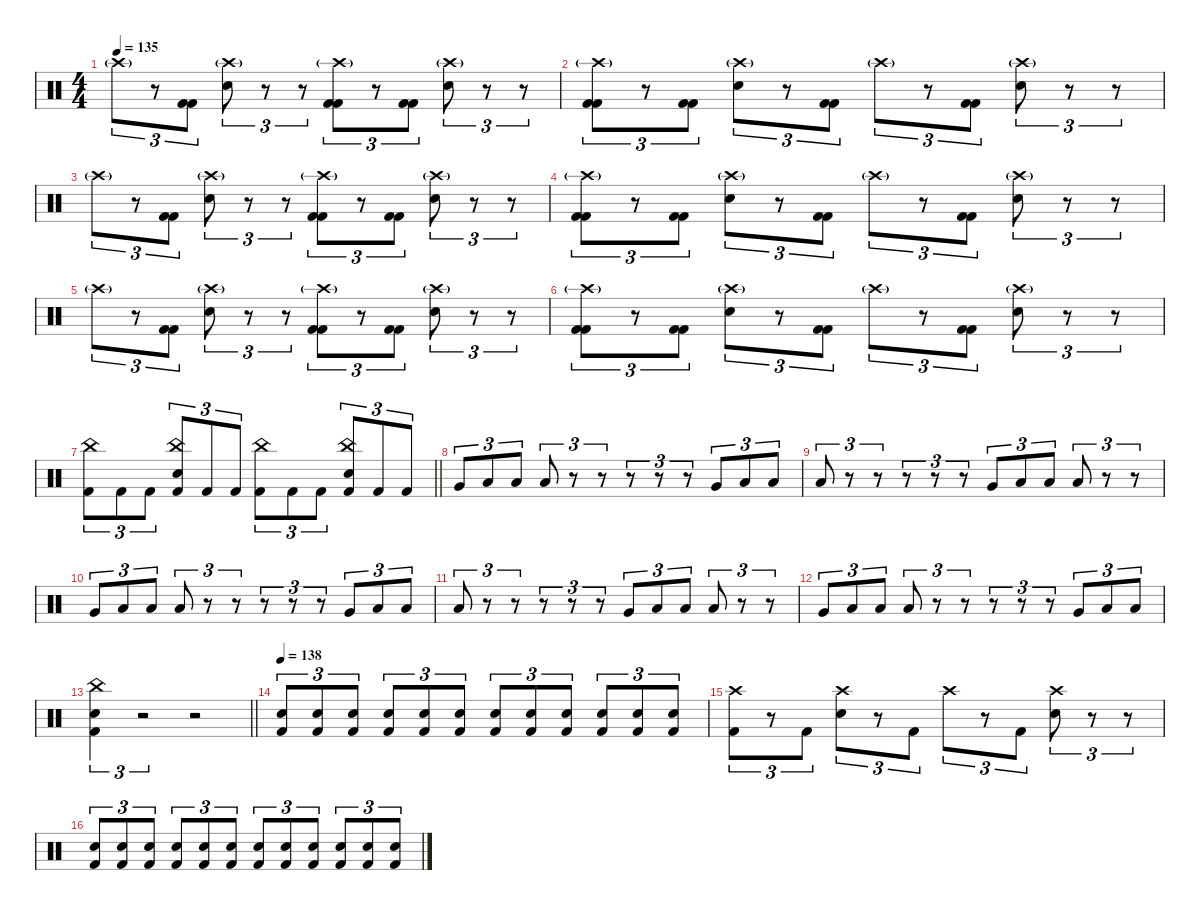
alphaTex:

\defaultSystemsLayout 4
\hideDynamics
\bracketExtendMode nobrackets
\singleTrackTrackNamePolicy hidden
\multiTrackTrackNamePolicy hidden
\otherSystemsTrackNameOrientation horizontal
\track ("Gene Hoglan" "drm.") {instrument percussion}
\staff {score}
\articulation defaults
\ts (4 4)
\tempo 135
\clef neutral
\ks c "Crash high (hit)"{g}.8{tu (3 2) dy mf beam Down}
r.8{tu (3 2) beam Down} ("Kick (hit) 2" "Kick (hit) 2").8{tu (3 2) dy f beam Down} ("Crash high (hit)"{g} "Snare (hit) 2").8{tu (3 2) beam Down} r.8{tu (3 2) beam Down} r.8{tu (3 2) beam Down} ("Crash high (hit)"{g} "Kick (hit) 2" "Kick (hit) 2").8{tu (3 2) beam Down} r.8{tu (3 2) beam Down} ("Kick (hit) 2" "Kick (hit) 2").8{tu (3 2) beam Down} ("Crash high (hit)"{g} "Snare (hit) 2").8{tu (3 2) beam Down} r.8{tu (3 2) beam Down} r.8{tu (3 2) beam Down} |
("Crash high (hit)"{g} "Kick (hit) 2" "Kick (hit) 2").8{tu (3 2) beam Down} r.8{tu (3 2) beam Down} ("Kick (hit) 2" "Kick (hit) 2").8{tu (3 2) beam Down} ("Crash high (hit)"{g} "Snare (hit) 2").8{tu (3 2) beam Down} r.8{tu (3 2) beam Down} ("Kick (hit) 2" "Kick (hit) 2").8{tu (3 2) beam Down} "Crash high (hit)"{g}.8{tu (3 2) dy mf beam Down} r.8{tu (3 2) beam Down} ("Kick (hit) 2" "Kick (hit) 2").8{tu (3 2) dy f beam Down} ("Crash high (hit)"{g} "Snare (hit) 2").8{tu (3 2) beam Down} r.8{tu (3 2) beam Down} r.8{tu (3 2) beam Down} |
"Crash high (hit)"{g}.8{tu (3 2) dy mf beam Down} r.8{tu (3 2) beam Down} ("Kick (hit) 2" "Kick (hit) 2").8{tu (3 2) dy f beam Down} ("Crash high (hit)"{g} "Snare (hit) 2").8{tu (3 2) beam Down} r.8{tu (3 2) beam Down} r.8{tu (3 2) beam Down} ("Crash high (hit)"{g} "Kick (hit) 2" "Kick (hit) 2").8{tu (3 2) beam Down} r.8{tu (3 2) beam Down} ("Kick (hit) 2" "Kick (hit) 2").8{tu (3 2) beam Down} ("Crash high (hit)"{g} "Snare (hit) 2").8{tu (3 2) beam Down} r.8{tu (3 2) beam Down} r.8{tu (3 2) beam Down} |
("Crash high (hit)"{g} "Kick (hit) 2" "Kick (hit) 2").8{tu (3 2) beam Down} r.8{tu (3 2) beam Down} ("Kick (hit) 2" "Kick (hit) 2").8{tu (3 2) beam Down} ("Crash high (hit)"{g} "Snare (hit) 2").8{tu (3 2) beam Down} r.8{tu (3 2) beam Down} ("Kick (hit) 2" "Kick (hit) 2").8{tu (3 2) beam Down} "Crash high (hit)"{g}.8{tu (3 2) dy mf beam Down} r.8{tu (3 2) beam Down} ("Kick (hit) 2" "Kick (hit) 2").8{tu (3 2) dy f beam Down} ("Crash high (hit)"{g} "Snare (hit) 2").8{tu (3 2) beam Down} r.8{tu (3 2) beam Down} r.8{tu (3 2) beam Down} |
"Crash high (hit)"{g}.8{tu (3 2) dy mf beam Down} r.8{tu (3 2) beam Down} ("Kick (hit) 2" "Kick (hit) 2").8{tu (3 2) dy f beam Down} ("Crash high (hit)"{g} "Snare (hit) 2").8{tu (3 2) beam Down} r.8{tu (3 2) beam Down} r.8{tu (3 2) beam Down} ("Crash high (hit)"{g} "Kick (hit) 2" "Kick (hit) 2").8{tu (3 2) beam Down} r.8{tu (3 2) beam Down} ("Kick (hit) 2" "Kick (hit) 2").8{tu (3 2) beam Down} ("Crash high (hit)"{g} "Snare (hit) 2").8{tu (3 2) beam Down} r.8{tu (3 2) beam Down} r.8{tu (3 2) beam Down} |
("Crash high (hit)"{g} "Kick (hit) 2" "Kick (hit) 2").8{tu (3 2) beam Down} r.8{tu (3 2) beam Down} ("Kick (hit) 2" "Kick (hit) 2").8{tu (3 2) beam Down} ("Crash high (hit)"{g} "Snare (hit) 2").8{tu (3 2) beam Down} r.8{tu (3 2) beam Down} ("Kick (hit) 2" "Kick (hit) 2").8{tu (3 2) beam Down} "Crash high (hit)"{g}.8{tu (3 2) dy mf beam Down} r.8{tu (3 2) beam Down} ("Kick (hit) 2" "Kick (hit) 2").8{tu (3 2) dy f beam Down} ("Crash high (hit)"{g} "Snare (hit) 2").8{tu (3 2) beam Down} r.8{tu (3 2) beam Down} r.8{tu (3 2) beam Down} |
\barLineRight lightlight
("China (hit)" "Kick (hit) 2").8{tu (3 2) dy mf beam Down} "Kick (hit) 2".8{tu (3 2) dy f beam Down} "Kick (hit) 2".8{tu (3 2) beam Down} ("China (hit)" "Snare (hit) 2" "Kick (hit) 2").8{tu (3 2) dy mf beam Up} "Kick (hit) 2".8{tu (3 2) dy f beam Up} "Kick (hit) 2".8{tu (3 2) beam Up} ("China (hit)" "Kick (hit) 2").8{tu (3 2) dy mf beam Down} "Kick (hit) 2".8{tu (3 2) dy f beam Down} "Kick (hit) 2".8{tu (3 2) beam Down} ("China (hit)" "Snare (hit) 2" "Kick (hit) 2").8{tu (3 2) dy mf beam Up} "Kick (hit) 2".8{tu (3 2) dy f beam Up} "Kick (hit) 2".8{tu (3 2) beam Up} |
"Very Low Tom (hit)".8{tu (3 2) beam Up} "Low Floor Tom (hit)".8{tu (3 2) beam Up} "Low Floor Tom (hit)".8{tu (3 2) beam Up} "Low Floor Tom (hit)".8{tu (3 2) beam Up} r.8{tu (3 2) beam Up} r.8{tu (3 2) beam Up} r.8{tu (3 2) beam Up} r.8{tu (3 2) beam Up} r.8{tu (3 2) beam Up} "Very Low Tom (hit)".8{tu (3 2) beam Up} "Low Floor Tom (hit)".8{tu (3 2) beam Up} "Low Floor Tom (hit)".8{tu (3 2) beam Up} |
"Low Floor Tom (hit)".8{tu (3 2) beam Up} r.8{tu (3 2) beam Up} r.8{tu (3 2) beam Up} r.8{tu (3 2) beam Up} r.8{tu (3 2) beam Up} r.8{tu (3 2) beam Up} "Very Low Tom (hit)".8{tu (3 2) beam Up} "Low Floor Tom (hit)".8{tu (3 2) beam Up} "Low Floor Tom (hit)".8{tu (3 2) beam Up} "Low Floor Tom (hit)".8{tu (3 2) beam Up} r.8{tu (3 2) beam Up} r.8{tu (3 2) beam Up} |
"Very Low Tom (hit)".8{tu (3 2) beam Up} "Low Floor Tom (hit)".8{tu (3 2) beam Up} "Low Floor Tom (hit)".8{tu (3 2) beam Up} "Low Floor Tom (hit)".8{tu (3 2) beam Up} r.8{tu (3 2) beam Up} r.8{tu (3 2) beam Up} r.8{tu (3 2) beam Up} r.8{tu (3 2) beam Up} r.8{tu (3 2) beam Up} "Very Low Tom (hit)".8{tu (3 2) beam Up} "Low Floor Tom (hit)".8{tu (3 2) beam Up} "Low Floor Tom (hit)".8{tu (3 2) beam Up} |
"Low Floor Tom (hit)".8{tu (3 2) beam Up} r.8{tu (3 2) beam Up} r.8{tu (3 2) beam Up} r.8{tu (3 2) beam Up} r.8{tu (3 2) beam Up} r.8{tu (3 2) beam Up} "Very Low Tom (hit)".8{tu (3 2) beam Up} "Low Floor Tom (hit)".8{tu (3 2) beam Up} "Low Floor Tom (hit)".8{tu (3 2) beam Up} "Low Floor Tom (hit)".8{tu (3 2) beam Up} r.8{tu (3 2) beam Up} r.8{tu (3 2) beam Up} |
"Very Low Tom (hit)".8{tu (3 2) beam Up} "Low Floor Tom (hit)".8{tu (3 2) beam Up} "Low Floor Tom (hit)".8{tu (3 2) beam Up} "Low Floor Tom (hit)".8{tu (3 2) beam Up} r.8{tu (3 2) beam Up} r.8{tu (3 2) beam Up} r.8{tu (3 2) beam Up} r.8{tu (3 2) beam Up} r.8{tu (3 2) beam Up} "Very Low Tom (hit)".8{tu (3 2) beam Up} "Low Floor Tom (hit)".8{tu (3 2) beam Up} "Low Floor Tom (hit)".8{tu (3 2) beam Up} |
\barLineRight lightlight
("China (hit)" "Snare (hit) 2" "Kick (hit) 2").4{tu (3 2) beam Down} r.2{tu (3 2) beam Down} r.2{beam Down} |
\tempo 138
("Snare (hit) 2" "Kick (hit) 2").8{tu (3 2) dy fff beam Up} ("Snare (hit) 2" "Kick (hit) 2").8{tu (3 2) beam Up} ("Snare (hit) 2" "Kick (hit) 2").8{tu (3 2) beam Up} ("Snare (hit) 2" "Kick (hit) 2").8{tu (3 2) beam Up} ("Snare (hit) 2" "Kick (hit) 2").8{tu (3 2) beam Up} ("Snare (hit) 2" "Kick (hit) 2").8{tu (3 2) beam Up} ("Snare (hit) 2" "Kick (hit) 2").8{tu (3 2) beam Up} ("Snare (hit) 2" "Kick (hit) 2").8{tu (3 2) beam Up} ("Snare (hit) 2" "Kick (hit) 2").8{tu (3 2) beam Up} ("Snare (hit) 2" "Kick (hit) 2").8{tu (3 2) beam Up} ("Snare (hit) 2" "Kick (hit) 2").8{tu (3 2) beam Up} ("Snare (hit) 2" "Kick (hit) 2").8{tu (3 2) beam Up} |
("Crash high (hit)" "Kick (hit) 2").8{tu (3 2) dy f beam Down} r.8{tu (3 2) beam Down} "Kick (hit) 2".8{tu (3 2) beam Down} ("Crash high (hit)" "Snare (hit) 2").8{tu (3 2) beam Down} r.8{tu (3 2) beam Down} "Kick (hit) 2".8{tu (3 2) beam Down} "Crash high (hit)".8{tu (3 2) beam Down} r.8{tu (3 2) beam Down} "Kick (hit) 2".8{tu (3 2) beam Down} ("Crash high (hit)" "Snare (hit) 2").8{tu (3 2) beam Down} r.8{tu (3 2) beam Down} r.8{tu (3 2) beam Down} |
("Snare (hit) 2" "Kick (hit) 2").8{tu (3 2) dy fff beam Up} ("Snare (hit) 2" "Kick (hit) 2").8{tu (3 2) beam Up} ("Snare (hit) 2" "Kick (hit) 2").8{tu (3 2) beam Up} ("Snare (hit) 2" "Kick (hit) 2").8{tu (3 2) beam Up} ("Snare (hit) 2" "Kick (hit) 2").8{tu (3 2) beam Up} ("Snare (hit) 2" "Kick (hit) 2").8{tu (3 2) beam Up} ("Snare (hit) 2" "Kick (hit) 2").8{tu (3 2) beam Up} ("Snare (hit) 2" "Kick (hit) 2").8{tu (3 2) beam Up} ("Snare (hit) 2" "Kick (hit) 2").8{tu (3 2) beam Up} ("Snare (hit) 2" "Kick (hit) 2").8{tu (3 2) beam Up} ("Snare (hit) 2" "Kick (hit) 2").8{tu (3 2) beam Up} ("Snare (hit) 2" "Kick (hit) 2").8{tu (3 2) beam Up}
